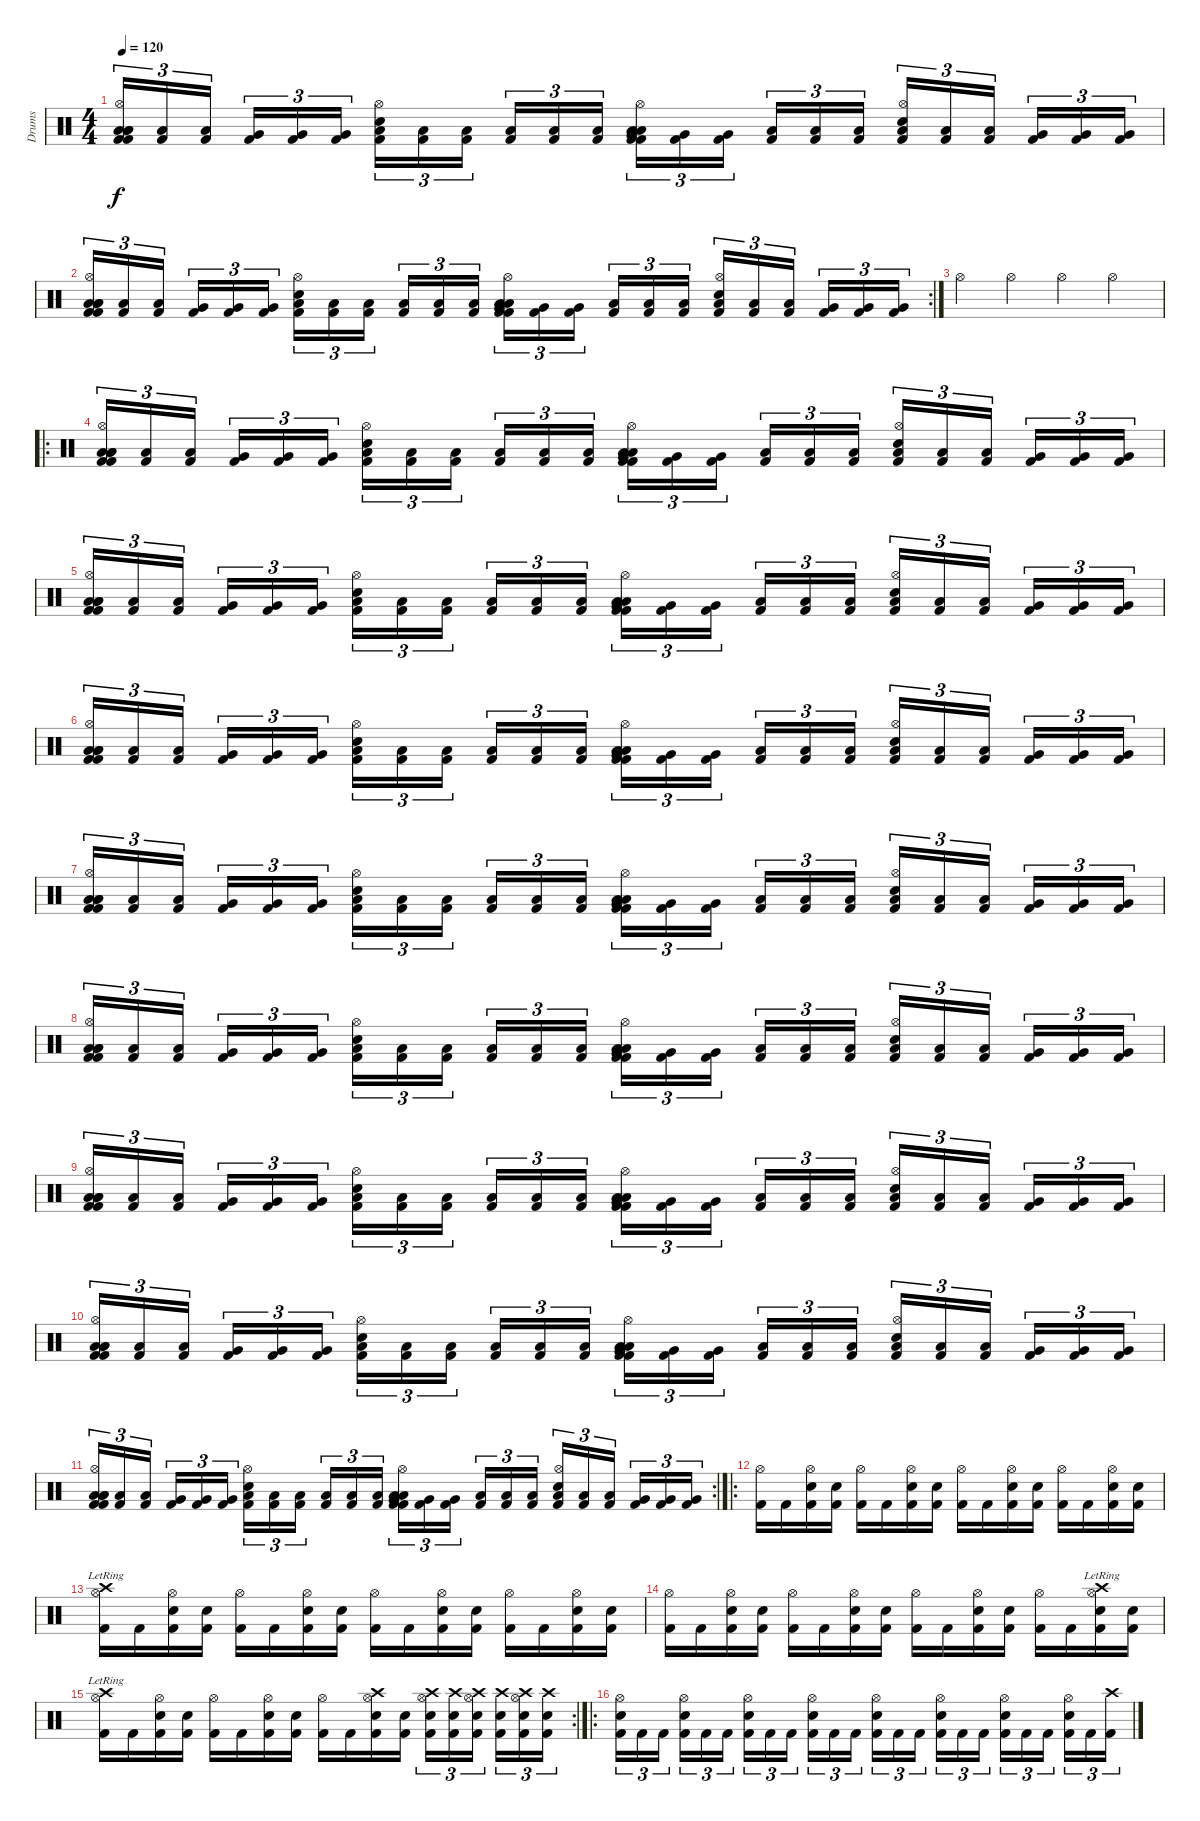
\track ("Drums" "Drums") {instrument percussion}
\staff {score}
\articulation defaults
\ts (4 4)
\tempo 120
\clef neutral
\ks c
("Low Tom (hit)" "Hi-Hat (open)" "Kick (hit) 2" "Kick (hit) 2" "Low Floor Tom (hit)" "Low Floor Tom (hit)").16{tu (3 2) dy f} ("Low Tom (hit)" "Kick (hit) 2").16{tu (3 2)} ("Low Tom (hit)" "Kick (hit) 2").16{tu (3 2)} ("Very Low Tom (hit)" "Kick (hit) 2").16{tu (3 2)} ("Very Low Tom (hit)" "Kick (hit) 2").16{tu (3 2)} ("Very Low Tom (hit)" "Kick (hit) 2").16{tu (3 2)} ("Low Floor Tom (hit)" "Hi-Hat (open)" "Electric Snare (hit)" "Kick (hit) 2").16{tu (3 2)} ("Low Floor Tom (hit)" "Kick (hit) 2").16{tu (3 2)} ("Low Floor Tom (hit)" "Kick (hit) 2").16{tu (3 2)} ("Low Tom (hit)" "Kick (hit) 2").16{tu (3 2)} ("Low Tom (hit)" "Kick (hit) 2").16{tu (3 2)} ("Low Tom (hit)" "Kick (hit) 2").16{tu (3 2)} ("Very Low Tom (hit)" "Hi-Hat (open)" "Kick (hit) 2" "Kick (hit) 2" "Low Floor Tom (hit)" "Low Floor Tom (hit)").16{tu (3 2)} ("Very Low Tom (hit)" "Kick (hit) 2").16{tu (3 2)} ("Very Low Tom (hit)" "Kick (hit) 2").16{tu (3 2)} ("Low Floor Tom (hit)" "Kick (hit) 2").16{tu (3 2)} ("Low Floor Tom (hit)" "Kick (hit) 2").16{tu (3 2)} ("Low Floor Tom (hit)" "Kick (hit) 2").16{tu (3 2)} ("Low Tom (hit)" "Hi-Hat (open)" "Electric Snare (hit)" "Kick (hit) 2").16{tu (3 2)} ("Low Tom (hit)" "Kick (hit) 2").16{tu (3 2)} ("Low Tom (hit)" "Kick (hit) 2").16{tu (3 2)} ("Very Low Tom (hit)" "Kick (hit) 2").16{tu (3 2)} ("Very Low Tom (hit)" "Kick (hit) 2").16{tu (3 2)} ("Very Low Tom (hit)" "Kick (hit) 2").16{tu (3 2)} |
\rc 2
("Low Tom (hit)" "Hi-Hat (open)" "Kick (hit) 2" "Kick (hit) 2" "Low Floor Tom (hit)" "Low Floor Tom (hit)").16{tu (3 2)} ("Low Tom (hit)" "Kick (hit) 2").16{tu (3 2)} ("Low Tom (hit)" "Kick (hit) 2").16{tu (3 2)} ("Very Low Tom (hit)" "Kick (hit) 2").16{tu (3 2)} ("Very Low Tom (hit)" "Kick (hit) 2").16{tu (3 2)} ("Very Low Tom (hit)" "Kick (hit) 2").16{tu (3 2)} ("Low Floor Tom (hit)" "Hi-Hat (open)" "Electric Snare (hit)" "Kick (hit) 2").16{tu (3 2)} ("Low Floor Tom (hit)" "Kick (hit) 2").16{tu (3 2)} ("Low Floor Tom (hit)" "Kick (hit) 2").16{tu (3 2)} ("Low Tom (hit)" "Kick (hit) 2").16{tu (3 2)} ("Low Tom (hit)" "Kick (hit) 2").16{tu (3 2)} ("Low Tom (hit)" "Kick (hit) 2").16{tu (3 2)} ("Very Low Tom (hit)" "Hi-Hat (open)" "Kick (hit) 2" "Kick (hit) 2" "Low Floor Tom (hit)" "Low Floor Tom (hit)").16{tu (3 2)} ("Very Low Tom (hit)" "Kick (hit) 2").16{tu (3 2)} ("Very Low Tom (hit)" "Kick (hit) 2").16{tu (3 2)} ("Low Floor Tom (hit)" "Kick (hit) 2").16{tu (3 2)} ("Low Floor Tom (hit)" "Kick (hit) 2").16{tu (3 2)} ("Low Floor Tom (hit)" "Kick (hit) 2").16{tu (3 2)} ("Low Tom (hit)" "Hi-Hat (open)" "Electric Snare (hit)" "Kick (hit) 2").16{tu (3 2)} ("Low Tom (hit)" "Kick (hit) 2").16{tu (3 2)} ("Low Tom (hit)" "Kick (hit) 2").16{tu (3 2)} ("Very Low Tom (hit)" "Kick (hit) 2").16{tu (3 2)} ("Very Low Tom (hit)" "Kick (hit) 2").16{tu (3 2)} ("Very Low Tom (hit)" "Kick (hit) 2").16{tu (3 2)} |
"Hi-Hat (open)".4 "Hi-Hat (open)".4 "Hi-Hat (open)".4 "Hi-Hat (open)".4 |
\ro
("Low Tom (hit)" "Hi-Hat (open)" "Kick (hit) 2" "Kick (hit) 2" "Low Floor Tom (hit)" "Low Floor Tom (hit)").16{tu (3 2)} ("Low Tom (hit)" "Kick (hit) 2").16{tu (3 2)} ("Low Tom (hit)" "Kick (hit) 2").16{tu (3 2)} ("Very Low Tom (hit)" "Kick (hit) 2").16{tu (3 2)} ("Very Low Tom (hit)" "Kick (hit) 2").16{tu (3 2)} ("Very Low Tom (hit)" "Kick (hit) 2").16{tu (3 2)} ("Low Floor Tom (hit)" "Hi-Hat (open)" "Electric Snare (hit)" "Kick (hit) 2").16{tu (3 2)} ("Low Floor Tom (hit)" "Kick (hit) 2").16{tu (3 2)} ("Low Floor Tom (hit)" "Kick (hit) 2").16{tu (3 2)} ("Low Tom (hit)" "Kick (hit) 2").16{tu (3 2)} ("Low Tom (hit)" "Kick (hit) 2").16{tu (3 2)} ("Low Tom (hit)" "Kick (hit) 2").16{tu (3 2)} ("Very Low Tom (hit)" "Hi-Hat (open)" "Kick (hit) 2" "Kick (hit) 2" "Low Floor Tom (hit)" "Low Floor Tom (hit)").16{tu (3 2)} ("Very Low Tom (hit)" "Kick (hit) 2").16{tu (3 2)} ("Very Low Tom (hit)" "Kick (hit) 2").16{tu (3 2)} ("Low Floor Tom (hit)" "Kick (hit) 2").16{tu (3 2)} ("Low Floor Tom (hit)" "Kick (hit) 2").16{tu (3 2)} ("Low Floor Tom (hit)" "Kick (hit) 2").16{tu (3 2)} ("Low Tom (hit)" "Hi-Hat (open)" "Electric Snare (hit)" "Kick (hit) 2").16{tu (3 2)} ("Low Tom (hit)" "Kick (hit) 2").16{tu (3 2)} ("Low Tom (hit)" "Kick (hit) 2").16{tu (3 2)} ("Very Low Tom (hit)" "Kick (hit) 2").16{tu (3 2)} ("Very Low Tom (hit)" "Kick (hit) 2").16{tu (3 2)} ("Very Low Tom (hit)" "Kick (hit) 2").16{tu (3 2)} |
("Low Tom (hit)" "Hi-Hat (open)" "Kick (hit) 2" "Kick (hit) 2" "Low Floor Tom (hit)" "Low Floor Tom (hit)").16{tu (3 2)} ("Low Tom (hit)" "Kick (hit) 2").16{tu (3 2)} ("Low Tom (hit)" "Kick (hit) 2").16{tu (3 2)} ("Very Low Tom (hit)" "Kick (hit) 2").16{tu (3 2)} ("Very Low Tom (hit)" "Kick (hit) 2").16{tu (3 2)} ("Very Low Tom (hit)" "Kick (hit) 2").16{tu (3 2)} ("Low Floor Tom (hit)" "Hi-Hat (open)" "Electric Snare (hit)" "Kick (hit) 2").16{tu (3 2)} ("Low Floor Tom (hit)" "Kick (hit) 2").16{tu (3 2)} ("Low Floor Tom (hit)" "Kick (hit) 2").16{tu (3 2)} ("Low Tom (hit)" "Kick (hit) 2").16{tu (3 2)} ("Low Tom (hit)" "Kick (hit) 2").16{tu (3 2)} ("Low Tom (hit)" "Kick (hit) 2").16{tu (3 2)} ("Very Low Tom (hit)" "Hi-Hat (open)" "Kick (hit) 2" "Kick (hit) 2" "Low Floor Tom (hit)" "Low Floor Tom (hit)").16{tu (3 2)} ("Very Low Tom (hit)" "Kick (hit) 2").16{tu (3 2)} ("Very Low Tom (hit)" "Kick (hit) 2").16{tu (3 2)} ("Low Floor Tom (hit)" "Kick (hit) 2").16{tu (3 2)} ("Low Floor Tom (hit)" "Kick (hit) 2").16{tu (3 2)} ("Low Floor Tom (hit)" "Kick (hit) 2").16{tu (3 2)} ("Low Tom (hit)" "Hi-Hat (open)" "Electric Snare (hit)" "Kick (hit) 2").16{tu (3 2)} ("Low Tom (hit)" "Kick (hit) 2").16{tu (3 2)} ("Low Tom (hit)" "Kick (hit) 2").16{tu (3 2)} ("Very Low Tom (hit)" "Kick (hit) 2").16{tu (3 2)} ("Very Low Tom (hit)" "Kick (hit) 2").16{tu (3 2)} ("Very Low Tom (hit)" "Kick (hit) 2").16{tu (3 2)} |
("Low Tom (hit)" "Hi-Hat (open)" "Kick (hit) 2" "Kick (hit) 2" "Low Floor Tom (hit)" "Low Floor Tom (hit)").16{tu (3 2)} ("Low Tom (hit)" "Kick (hit) 2").16{tu (3 2)} ("Low Tom (hit)" "Kick (hit) 2").16{tu (3 2)} ("Very Low Tom (hit)" "Kick (hit) 2").16{tu (3 2)} ("Very Low Tom (hit)" "Kick (hit) 2").16{tu (3 2)} ("Very Low Tom (hit)" "Kick (hit) 2").16{tu (3 2)} ("Low Floor Tom (hit)" "Hi-Hat (open)" "Electric Snare (hit)" "Kick (hit) 2").16{tu (3 2)} ("Low Floor Tom (hit)" "Kick (hit) 2").16{tu (3 2)} ("Low Floor Tom (hit)" "Kick (hit) 2").16{tu (3 2)} ("Low Tom (hit)" "Kick (hit) 2").16{tu (3 2)} ("Low Tom (hit)" "Kick (hit) 2").16{tu (3 2)} ("Low Tom (hit)" "Kick (hit) 2").16{tu (3 2)} ("Very Low Tom (hit)" "Hi-Hat (open)" "Kick (hit) 2" "Kick (hit) 2" "Low Floor Tom (hit)" "Low Floor Tom (hit)").16{tu (3 2)} ("Very Low Tom (hit)" "Kick (hit) 2").16{tu (3 2)} ("Very Low Tom (hit)" "Kick (hit) 2").16{tu (3 2)} ("Low Floor Tom (hit)" "Kick (hit) 2").16{tu (3 2)} ("Low Floor Tom (hit)" "Kick (hit) 2").16{tu (3 2)} ("Low Floor Tom (hit)" "Kick (hit) 2").16{tu (3 2)} ("Low Tom (hit)" "Hi-Hat (open)" "Electric Snare (hit)" "Kick (hit) 2").16{tu (3 2)} ("Low Tom (hit)" "Kick (hit) 2").16{tu (3 2)} ("Low Tom (hit)" "Kick (hit) 2").16{tu (3 2)} ("Very Low Tom (hit)" "Kick (hit) 2").16{tu (3 2)} ("Very Low Tom (hit)" "Kick (hit) 2").16{tu (3 2)} ("Very Low Tom (hit)" "Kick (hit) 2").16{tu (3 2)} |
("Low Tom (hit)" "Hi-Hat (open)" "Kick (hit) 2" "Kick (hit) 2" "Low Floor Tom (hit)" "Low Floor Tom (hit)").16{tu (3 2)} ("Low Tom (hit)" "Kick (hit) 2").16{tu (3 2)} ("Low Tom (hit)" "Kick (hit) 2").16{tu (3 2)} ("Very Low Tom (hit)" "Kick (hit) 2").16{tu (3 2)} ("Very Low Tom (hit)" "Kick (hit) 2").16{tu (3 2)} ("Very Low Tom (hit)" "Kick (hit) 2").16{tu (3 2)} ("Low Floor Tom (hit)" "Hi-Hat (open)" "Electric Snare (hit)" "Kick (hit) 2").16{tu (3 2)} ("Low Floor Tom (hit)" "Kick (hit) 2").16{tu (3 2)} ("Low Floor Tom (hit)" "Kick (hit) 2").16{tu (3 2)} ("Low Tom (hit)" "Kick (hit) 2").16{tu (3 2)} ("Low Tom (hit)" "Kick (hit) 2").16{tu (3 2)} ("Low Tom (hit)" "Kick (hit) 2").16{tu (3 2)} ("Very Low Tom (hit)" "Hi-Hat (open)" "Kick (hit) 2" "Kick (hit) 2" "Low Floor Tom (hit)" "Low Floor Tom (hit)").16{tu (3 2)} ("Very Low Tom (hit)" "Kick (hit) 2").16{tu (3 2)} ("Very Low Tom (hit)" "Kick (hit) 2").16{tu (3 2)} ("Low Floor Tom (hit)" "Kick (hit) 2").16{tu (3 2)} ("Low Floor Tom (hit)" "Kick (hit) 2").16{tu (3 2)} ("Low Floor Tom (hit)" "Kick (hit) 2").16{tu (3 2)} ("Low Tom (hit)" "Hi-Hat (open)" "Electric Snare (hit)" "Kick (hit) 2").16{tu (3 2)} ("Low Tom (hit)" "Kick (hit) 2").16{tu (3 2)} ("Low Tom (hit)" "Kick (hit) 2").16{tu (3 2)} ("Very Low Tom (hit)" "Kick (hit) 2").16{tu (3 2)} ("Very Low Tom (hit)" "Kick (hit) 2").16{tu (3 2)} ("Very Low Tom (hit)" "Kick (hit) 2").16{tu (3 2)} |
("Low Tom (hit)" "Hi-Hat (open)" "Kick (hit) 2" "Kick (hit) 2" "Low Floor Tom (hit)" "Low Floor Tom (hit)").16{tu (3 2)} ("Low Tom (hit)" "Kick (hit) 2").16{tu (3 2)} ("Low Tom (hit)" "Kick (hit) 2").16{tu (3 2)} ("Very Low Tom (hit)" "Kick (hit) 2").16{tu (3 2)} ("Very Low Tom (hit)" "Kick (hit) 2").16{tu (3 2)} ("Very Low Tom (hit)" "Kick (hit) 2").16{tu (3 2)} ("Low Floor Tom (hit)" "Hi-Hat (open)" "Electric Snare (hit)" "Kick (hit) 2").16{tu (3 2)} ("Low Floor Tom (hit)" "Kick (hit) 2").16{tu (3 2)} ("Low Floor Tom (hit)" "Kick (hit) 2").16{tu (3 2)} ("Low Tom (hit)" "Kick (hit) 2").16{tu (3 2)} ("Low Tom (hit)" "Kick (hit) 2").16{tu (3 2)} ("Low Tom (hit)" "Kick (hit) 2").16{tu (3 2)} ("Very Low Tom (hit)" "Hi-Hat (open)" "Kick (hit) 2" "Kick (hit) 2" "Low Floor Tom (hit)" "Low Floor Tom (hit)").16{tu (3 2)} ("Very Low Tom (hit)" "Kick (hit) 2").16{tu (3 2)} ("Very Low Tom (hit)" "Kick (hit) 2").16{tu (3 2)} ("Low Floor Tom (hit)" "Kick (hit) 2").16{tu (3 2)} ("Low Floor Tom (hit)" "Kick (hit) 2").16{tu (3 2)} ("Low Floor Tom (hit)" "Kick (hit) 2").16{tu (3 2)} ("Low Tom (hit)" "Hi-Hat (open)" "Electric Snare (hit)" "Kick (hit) 2").16{tu (3 2)} ("Low Tom (hit)" "Kick (hit) 2").16{tu (3 2)} ("Low Tom (hit)" "Kick (hit) 2").16{tu (3 2)} ("Very Low Tom (hit)" "Kick (hit) 2").16{tu (3 2)} ("Very Low Tom (hit)" "Kick (hit) 2").16{tu (3 2)} ("Very Low Tom (hit)" "Kick (hit) 2").16{tu (3 2)} |
("Low Tom (hit)" "Hi-Hat (open)" "Kick (hit) 2" "Kick (hit) 2" "Low Floor Tom (hit)" "Low Floor Tom (hit)").16{tu (3 2)} ("Low Tom (hit)" "Kick (hit) 2").16{tu (3 2)} ("Low Tom (hit)" "Kick (hit) 2").16{tu (3 2)} ("Very Low Tom (hit)" "Kick (hit) 2").16{tu (3 2)} ("Very Low Tom (hit)" "Kick (hit) 2").16{tu (3 2)} ("Very Low Tom (hit)" "Kick (hit) 2").16{tu (3 2)} ("Low Floor Tom (hit)" "Hi-Hat (open)" "Electric Snare (hit)" "Kick (hit) 2").16{tu (3 2)} ("Low Floor Tom (hit)" "Kick (hit) 2").16{tu (3 2)} ("Low Floor Tom (hit)" "Kick (hit) 2").16{tu (3 2)} ("Low Tom (hit)" "Kick (hit) 2").16{tu (3 2)} ("Low Tom (hit)" "Kick (hit) 2").16{tu (3 2)} ("Low Tom (hit)" "Kick (hit) 2").16{tu (3 2)} ("Very Low Tom (hit)" "Hi-Hat (open)" "Kick (hit) 2" "Kick (hit) 2" "Low Floor Tom (hit)" "Low Floor Tom (hit)").16{tu (3 2)} ("Very Low Tom (hit)" "Kick (hit) 2").16{tu (3 2)} ("Very Low Tom (hit)" "Kick (hit) 2").16{tu (3 2)} ("Low Floor Tom (hit)" "Kick (hit) 2").16{tu (3 2)} ("Low Floor Tom (hit)" "Kick (hit) 2").16{tu (3 2)} ("Low Floor Tom (hit)" "Kick (hit) 2").16{tu (3 2)} ("Low Tom (hit)" "Hi-Hat (open)" "Electric Snare (hit)" "Kick (hit) 2").16{tu (3 2)} ("Low Tom (hit)" "Kick (hit) 2").16{tu (3 2)} ("Low Tom (hit)" "Kick (hit) 2").16{tu (3 2)} ("Very Low Tom (hit)" "Kick (hit) 2").16{tu (3 2)} ("Very Low Tom (hit)" "Kick (hit) 2").16{tu (3 2)} ("Very Low Tom (hit)" "Kick (hit) 2").16{tu (3 2)} |
("Low Tom (hit)" "Hi-Hat (open)" "Kick (hit) 2" "Kick (hit) 2" "Low Floor Tom (hit)" "Low Floor Tom (hit)").16{tu (3 2)} ("Low Tom (hit)" "Kick (hit) 2").16{tu (3 2)} ("Low Tom (hit)" "Kick (hit) 2").16{tu (3 2)} ("Very Low Tom (hit)" "Kick (hit) 2").16{tu (3 2)} ("Very Low Tom (hit)" "Kick (hit) 2").16{tu (3 2)} ("Very Low Tom (hit)" "Kick (hit) 2").16{tu (3 2)} ("Low Floor Tom (hit)" "Hi-Hat (open)" "Electric Snare (hit)" "Kick (hit) 2").16{tu (3 2)} ("Low Floor Tom (hit)" "Kick (hit) 2").16{tu (3 2)} ("Low Floor Tom (hit)" "Kick (hit) 2").16{tu (3 2)} ("Low Tom (hit)" "Kick (hit) 2").16{tu (3 2)} ("Low Tom (hit)" "Kick (hit) 2").16{tu (3 2)} ("Low Tom (hit)" "Kick (hit) 2").16{tu (3 2)} ("Very Low Tom (hit)" "Hi-Hat (open)" "Kick (hit) 2" "Kick (hit) 2" "Low Floor Tom (hit)" "Low Floor Tom (hit)").16{tu (3 2)} ("Very Low Tom (hit)" "Kick (hit) 2").16{tu (3 2)} ("Very Low Tom (hit)" "Kick (hit) 2").16{tu (3 2)} ("Low Floor Tom (hit)" "Kick (hit) 2").16{tu (3 2)} ("Low Floor Tom (hit)" "Kick (hit) 2").16{tu (3 2)} ("Low Floor Tom (hit)" "Kick (hit) 2").16{tu (3 2)} ("Low Tom (hit)" "Hi-Hat (open)" "Electric Snare (hit)" "Kick (hit) 2").16{tu (3 2)} ("Low Tom (hit)" "Kick (hit) 2").16{tu (3 2)} ("Low Tom (hit)" "Kick (hit) 2").16{tu (3 2)} ("Very Low Tom (hit)" "Kick (hit) 2").16{tu (3 2)} ("Very Low Tom (hit)" "Kick (hit) 2").16{tu (3 2)} ("Very Low Tom (hit)" "Kick (hit) 2").16{tu (3 2)} |
\rc 2
("Low Tom (hit)" "Hi-Hat (open)" "Kick (hit) 2" "Kick (hit) 2" "Low Floor Tom (hit)" "Low Floor Tom (hit)").16{tu (3 2)} ("Low Tom (hit)" "Kick (hit) 2").16{tu (3 2)} ("Low Tom (hit)" "Kick (hit) 2").16{tu (3 2)} ("Very Low Tom (hit)" "Kick (hit) 2").16{tu (3 2)} ("Very Low Tom (hit)" "Kick (hit) 2").16{tu (3 2)} ("Very Low Tom (hit)" "Kick (hit) 2").16{tu (3 2)} ("Low Floor Tom (hit)" "Hi-Hat (open)" "Electric Snare (hit)" "Kick (hit) 2").16{tu (3 2)} ("Low Floor Tom (hit)" "Kick (hit) 2").16{tu (3 2)} ("Low Floor Tom (hit)" "Kick (hit) 2").16{tu (3 2)} ("Low Tom (hit)" "Kick (hit) 2").16{tu (3 2)} ("Low Tom (hit)" "Kick (hit) 2").16{tu (3 2)} ("Low Tom (hit)" "Kick (hit) 2").16{tu (3 2)} ("Very Low Tom (hit)" "Hi-Hat (open)" "Kick (hit) 2" "Kick (hit) 2" "Low Floor Tom (hit)" "Low Floor Tom (hit)").16{tu (3 2)} ("Very Low Tom (hit)" "Kick (hit) 2").16{tu (3 2)} ("Very Low Tom (hit)" "Kick (hit) 2").16{tu (3 2)} ("Low Floor Tom (hit)" "Kick (hit) 2").16{tu (3 2)} ("Low Floor Tom (hit)" "Kick (hit) 2").16{tu (3 2)} ("Low Floor Tom (hit)" "Kick (hit) 2").16{tu (3 2)} ("Low Tom (hit)" "Hi-Hat (open)" "Electric Snare (hit)" "Kick (hit) 2").16{tu (3 2)} ("Low Tom (hit)" "Kick (hit) 2").16{tu (3 2)} ("Low Tom (hit)" "Kick (hit) 2").16{tu (3 2)} ("Very Low Tom (hit)" "Kick (hit) 2").16{tu (3 2)} ("Very Low Tom (hit)" "Kick (hit) 2").16{tu (3 2)} ("Very Low Tom (hit)" "Kick (hit) 2").16{tu (3 2)} |
\ro
("Hi-Hat (open)" "Kick (hit) 2").16 "Kick (hit) 2".16 ("Hi-Hat (open)" "Snare (hit) 2" "Kick (hit) 2").16 ("Snare (hit) 2" "Kick (hit) 2").16 ("Hi-Hat (open)" "Kick (hit) 2").16 "Kick (hit) 2".16 ("Hi-Hat (open)" "Snare (hit) 2" "Kick (hit) 2").16 ("Snare (hit) 2" "Kick (hit) 2").16 ("Hi-Hat (open)" "Kick (hit) 2").16 "Kick (hit) 2".16 ("Hi-Hat (open)" "Snare (hit) 2" "Kick (hit) 2").16 ("Snare (hit) 2" "Kick (hit) 2").16 ("Hi-Hat (open)" "Kick (hit) 2").16 "Kick (hit) 2".16 ("Hi-Hat (open)" "Snare (hit) 2" "Kick (hit) 2").16 ("Snare (hit) 2" "Kick (hit) 2").16 |
("Crash high (hit)"{lr} "Hi-Hat (open)" "Kick (hit) 2").16 "Kick (hit) 2".16 ("Hi-Hat (open)" "Snare (hit) 2" "Kick (hit) 2").16 ("Snare (hit) 2" "Kick (hit) 2").16 ("Hi-Hat (open)" "Kick (hit) 2").16 "Kick (hit) 2".16 ("Hi-Hat (open)" "Snare (hit) 2" "Kick (hit) 2").16 ("Snare (hit) 2" "Kick (hit) 2").16 ("Hi-Hat (open)" "Kick (hit) 2").16 "Kick (hit) 2".16 ("Hi-Hat (open)" "Snare (hit) 2" "Kick (hit) 2").16 ("Snare (hit) 2" "Kick (hit) 2").16 ("Hi-Hat (open)" "Kick (hit) 2").16 "Kick (hit) 2".16 ("Hi-Hat (open)" "Snare (hit) 2" "Kick (hit) 2").16 ("Snare (hit) 2" "Kick (hit) 2").16 |
("Hi-Hat (open)" "Kick (hit) 2").16 "Kick (hit) 2".16 ("Hi-Hat (open)" "Snare (hit) 2" "Kick (hit) 2").16 ("Snare (hit) 2" "Kick (hit) 2").16 ("Hi-Hat (open)" "Kick (hit) 2").16 "Kick (hit) 2".16 ("Hi-Hat (open)" "Snare (hit) 2" "Kick (hit) 2").16 ("Snare (hit) 2" "Kick (hit) 2").16 ("Hi-Hat (open)" "Kick (hit) 2").16 "Kick (hit) 2".16 ("Hi-Hat (open)" "Snare (hit) 2" "Kick (hit) 2").16 ("Snare (hit) 2" "Kick (hit) 2").16 ("Hi-Hat (open)" "Kick (hit) 2").16 "Kick (hit) 2".16 ("Crash high (hit)"{lr} "Hi-Hat (open)" "Snare (hit) 2" "Kick (hit) 2").16 ("Snare (hit) 2" "Kick (hit) 2").16 |
\rc 2
("Crash high (hit)"{lr} "Hi-Hat (open)" "Kick (hit) 2").16 "Kick (hit) 2".16 ("Hi-Hat (open)" "Snare (hit) 2" "Kick (hit) 2").16 ("Snare (hit) 2" "Kick (hit) 2").16 ("Hi-Hat (open)" "Kick (hit) 2").16 "Kick (hit) 2".16 ("Hi-Hat (open)" "Snare (hit) 2" "Kick (hit) 2").16 ("Snare (hit) 2" "Kick (hit) 2").16 ("Hi-Hat (open)" "Kick (hit) 2").16 "Kick (hit) 2".16 ("Crash high (hit)" "Hi-Hat (open)" "Snare (hit) 2" "Kick (hit) 2").16 ("Snare (hit) 2" "Kick (hit) 2").16 ("Crash high (hit)" "Hi-Hat (open)" "Snare (hit) 2" "Kick (hit) 2").16{tu (3 2)} ("Crash high (hit)" "Snare (hit) 2" "Kick (hit) 2").16{tu (3 2)} ("Crash high (hit)" "Hi-Hat (open)" "Snare (hit) 2" "Kick (hit) 2").16{tu (3 2)} ("Crash high (hit)" "Snare (hit) 2" "Kick (hit) 2").16{tu (3 2)} ("Crash high (hit)" "Hi-Hat (open)" "Snare (hit) 2" "Kick (hit) 2").16{tu (3 2)} ("Crash high (hit)" "Snare (hit) 2" "Kick (hit) 2").16{tu (3 2)} |
\ro
("Hi-Hat (open)" "Snare (hit) 2" "Kick (hit) 2").16{tu (3 2)} "Kick (hit) 2".16{tu (3 2)} "Kick (hit) 2".16{tu (3 2)} ("Hi-Hat (open)" "Electric Snare (hit)" "Kick (hit) 2").16{tu (3 2)} "Kick (hit) 2".16{tu (3 2)} "Kick (hit) 2".16{tu (3 2)} ("Hi-Hat (open)" "Snare (hit) 2" "Kick (hit) 2").16{tu (3 2)} "Kick (hit) 2".16{tu (3 2)} "Kick (hit) 2".16{tu (3 2)} ("Hi-Hat (open)" "Electric Snare (hit)" "Kick (hit) 2").16{tu (3 2)} "Kick (hit) 2".16{tu (3 2)} "Kick (hit) 2".16{tu (3 2)} ("Hi-Hat (open)" "Snare (hit) 2" "Kick (hit) 2").16{tu (3 2)} "Kick (hit) 2".16{tu (3 2)} "Kick (hit) 2".16{tu (3 2)} ("Hi-Hat (open)" "Electric Snare (hit)" "Kick (hit) 2").16{tu (3 2)} "Kick (hit) 2".16{tu (3 2)} "Kick (hit) 2".16{tu (3 2)} ("Hi-Hat (open)" "Snare (hit) 2" "Kick (hit) 2").16{tu (3 2)} "Kick (hit) 2".16{tu (3 2)} "Kick (hit) 2".16{tu (3 2)} ("Hi-Hat (open)" "Electric Snare (hit)" "Kick (hit) 2").16{tu (3 2)} "Kick (hit) 2".16{tu (3 2)} ("Crash high (hit)" "Kick (hit) 2").16{tu (3 2)}
